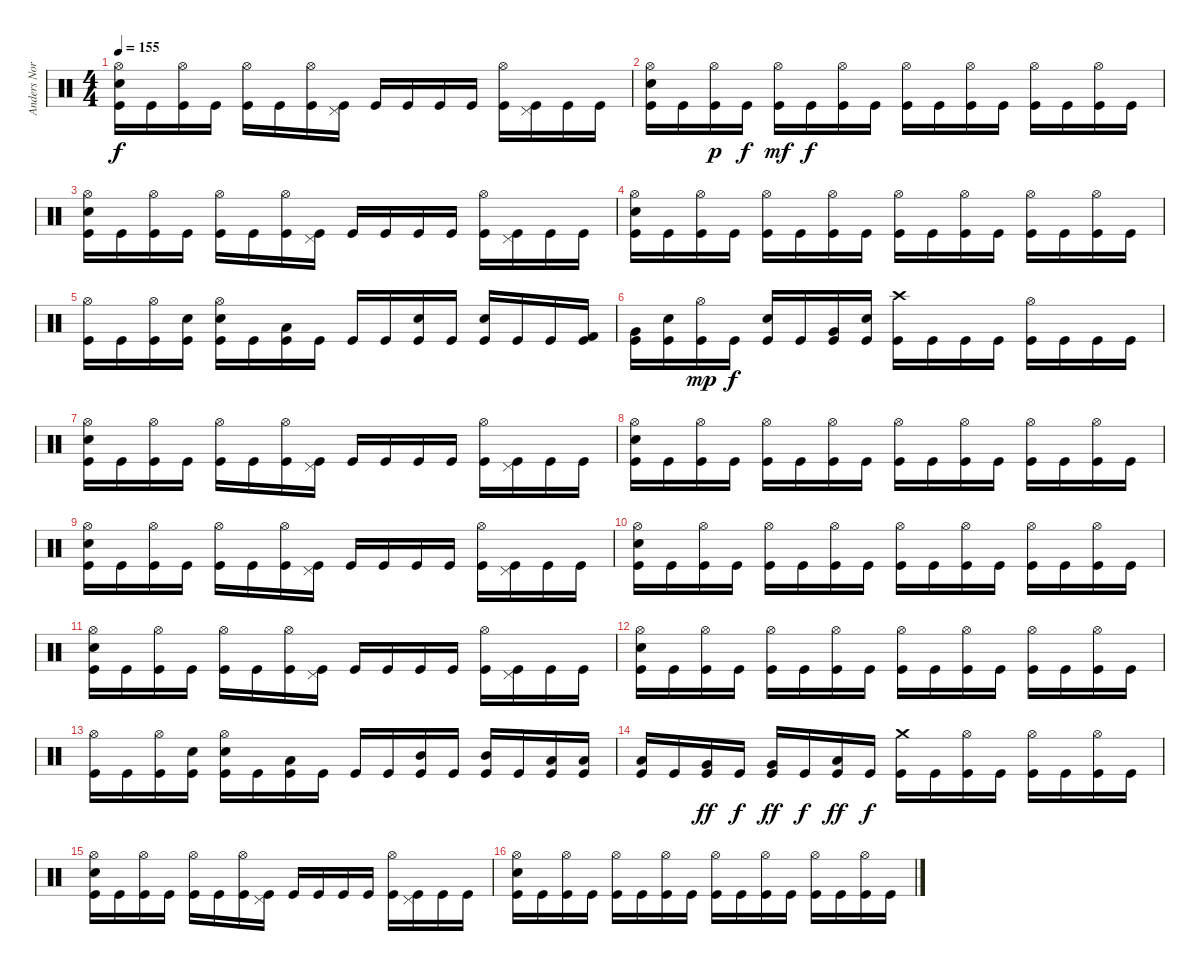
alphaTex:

\track ("Anders Nordin" "Anders Nor") {instrument percussion}
\staff {score}
\articulation defaults
\ts (4 4)
\tempo 155
\clef neutral
\ks c
("Hi-Hat (open)" "Snare (hit) 2" "Kick (hit)").16{dy f} "Kick (hit)".16 ("Hi-Hat (open)" "Kick (hit)").16 "Kick (hit)".16 ("Hi-Hat (open)" "Kick (hit)").16 "Kick (hit)".16 ("Hi-Hat (open)" "Kick (hit)").16 ("Pedal Hi-Hat (hit)" "Kick (hit)").16 "Kick (hit)".16 "Kick (hit)".16 "Kick (hit)".16 "Kick (hit)".16 ("Hi-Hat (open)" "Kick (hit)").16 ("Pedal Hi-Hat (hit)" "Kick (hit)").16 "Kick (hit)".16 "Kick (hit)".16 |
("Snare (hit) 2" "Hi-Hat (open)" "Kick (hit)").16 "Kick (hit)".16 ("Hi-Hat (open)" "Kick (hit)").16{dy p} "Kick (hit)".16{dy f} ("Hi-Hat (open)" "Kick (hit)").16{dy mf} "Kick (hit)".16{dy f} ("Hi-Hat (open)" "Kick (hit)").16 "Kick (hit)".16 ("Hi-Hat (open)" "Kick (hit)").16 "Kick (hit)".16 ("Hi-Hat (open)" "Kick (hit)").16 "Kick (hit)".16 ("Hi-Hat (open)" "Kick (hit)").16 "Kick (hit)".16 ("Hi-Hat (open)" "Kick (hit)").16 "Kick (hit)".16 |
("Hi-Hat (open)" "Snare (hit) 2" "Kick (hit)").16 "Kick (hit)".16 ("Hi-Hat (open)" "Kick (hit)").16 "Kick (hit)".16 ("Hi-Hat (open)" "Kick (hit)").16 "Kick (hit)".16 ("Hi-Hat (open)" "Kick (hit)").16 ("Pedal Hi-Hat (hit)" "Kick (hit)").16 "Kick (hit)".16 "Kick (hit)".16 "Kick (hit)".16 "Kick (hit)".16 ("Hi-Hat (open)" "Kick (hit)").16 ("Pedal Hi-Hat (hit)" "Kick (hit)").16 "Kick (hit)".16 "Kick (hit)".16 |
("Snare (hit) 2" "Hi-Hat (open)" "Kick (hit)").16 "Kick (hit)".16 ("Hi-Hat (open)" "Kick (hit)").16 "Kick (hit)".16 ("Hi-Hat (open)" "Kick (hit)").16 "Kick (hit)".16 ("Hi-Hat (open)" "Kick (hit)").16 "Kick (hit)".16 ("Hi-Hat (open)" "Kick (hit)").16 "Kick (hit)".16 ("Hi-Hat (open)" "Kick (hit)").16 "Kick (hit)".16 ("Hi-Hat (open)" "Kick (hit)").16 "Kick (hit)".16 ("Hi-Hat (open)" "Kick (hit)").16 "Kick (hit)".16 |
("Hi-Hat (open)" "Kick (hit)").16 "Kick (hit)".16 ("Hi-Hat (open)" "Kick (hit)").16 ("Snare (hit) 2" "Kick (hit)").16 ("Snare (hit) 2" "Hi-Hat (open)" "Kick (hit)").16 "Kick (hit)".16 ("Low Tom (hit)" "Kick (hit)").16 "Kick (hit)".16 "Kick (hit)".16 "Kick (hit)".16 ("Snare (hit) 2" "Kick (hit)").16 "Kick (hit)".16 ("Snare (hit) 2" "Kick (hit)").16 "Kick (hit)".16 "Kick (hit)".16 ("Kick (hit) 2" "Kick (hit)").16 |
("Very Low Tom (hit)" "Kick (hit)").16 ("Snare (hit) 2" "Kick (hit)").16 ("Hi-Hat (open)" "Kick (hit)").16{dy mp} "Kick (hit)".16{dy f} ("Snare (hit) 2" "Kick (hit)").16 "Kick (hit)".16 ("Very Low Tom (hit)" "Kick (hit)").16 ("Snare (hit) 2" "Kick (hit)").16 ("Crash high (hit)" "Kick (hit)").16 "Kick (hit)".16 "Kick (hit)".16 "Kick (hit)".16 ("Hi-Hat (open)" "Kick (hit)").16 "Kick (hit)".16 "Kick (hit)".16 "Kick (hit)".16 |
("Hi-Hat (open)" "Snare (hit) 2" "Kick (hit)").16 "Kick (hit)".16 ("Hi-Hat (open)" "Kick (hit)").16 "Kick (hit)".16 ("Hi-Hat (open)" "Kick (hit)").16 "Kick (hit)".16 ("Hi-Hat (open)" "Kick (hit)").16 ("Pedal Hi-Hat (hit)" "Kick (hit)").16 "Kick (hit)".16 "Kick (hit)".16 "Kick (hit)".16 "Kick (hit)".16 ("Hi-Hat (open)" "Kick (hit)").16 ("Pedal Hi-Hat (hit)" "Kick (hit)").16 "Kick (hit)".16 "Kick (hit)".16 |
("Snare (hit) 2" "Hi-Hat (open)" "Kick (hit)").16 "Kick (hit)".16 ("Hi-Hat (open)" "Kick (hit)").16 "Kick (hit)".16 ("Hi-Hat (open)" "Kick (hit)").16 "Kick (hit)".16 ("Hi-Hat (open)" "Kick (hit)").16 "Kick (hit)".16 ("Hi-Hat (open)" "Kick (hit)").16 "Kick (hit)".16 ("Hi-Hat (open)" "Kick (hit)").16 "Kick (hit)".16 ("Hi-Hat (open)" "Kick (hit)").16 "Kick (hit)".16 ("Hi-Hat (open)" "Kick (hit)").16 "Kick (hit)".16 |
("Hi-Hat (open)" "Snare (hit) 2" "Kick (hit)").16 "Kick (hit)".16 ("Hi-Hat (open)" "Kick (hit)").16 "Kick (hit)".16 ("Hi-Hat (open)" "Kick (hit)").16 "Kick (hit)".16 ("Hi-Hat (open)" "Kick (hit)").16 ("Pedal Hi-Hat (hit)" "Kick (hit)").16 "Kick (hit)".16 "Kick (hit)".16 "Kick (hit)".16 "Kick (hit)".16 ("Hi-Hat (open)" "Kick (hit)").16 ("Pedal Hi-Hat (hit)" "Kick (hit)").16 "Kick (hit)".16 "Kick (hit)".16 |
("Snare (hit) 2" "Hi-Hat (open)" "Kick (hit)").16 "Kick (hit)".16 ("Hi-Hat (open)" "Kick (hit)").16 "Kick (hit)".16 ("Hi-Hat (open)" "Kick (hit)").16 "Kick (hit)".16 ("Hi-Hat (open)" "Kick (hit)").16 "Kick (hit)".16 ("Hi-Hat (open)" "Kick (hit)").16 "Kick (hit)".16 ("Hi-Hat (open)" "Kick (hit)").16 "Kick (hit)".16 ("Hi-Hat (open)" "Kick (hit)").16 "Kick (hit)".16 ("Hi-Hat (open)" "Kick (hit)").16 "Kick (hit)".16 |
("Hi-Hat (open)" "Snare (hit) 2" "Kick (hit)").16 "Kick (hit)".16 ("Hi-Hat (open)" "Kick (hit)").16 "Kick (hit)".16 ("Hi-Hat (open)" "Kick (hit)").16 "Kick (hit)".16 ("Hi-Hat (open)" "Kick (hit)").16 ("Pedal Hi-Hat (hit)" "Kick (hit)").16 "Kick (hit)".16 "Kick (hit)".16 "Kick (hit)".16 "Kick (hit)".16 ("Hi-Hat (open)" "Kick (hit)").16 ("Pedal Hi-Hat (hit)" "Kick (hit)").16 "Kick (hit)".16 "Kick (hit)".16 |
("Snare (hit) 2" "Hi-Hat (open)" "Kick (hit)").16 "Kick (hit)".16 ("Hi-Hat (open)" "Kick (hit)").16 "Kick (hit)".16 ("Hi-Hat (open)" "Kick (hit)").16 "Kick (hit)".16 ("Hi-Hat (open)" "Kick (hit)").16 "Kick (hit)".16 ("Hi-Hat (open)" "Kick (hit)").16 "Kick (hit)".16 ("Hi-Hat (open)" "Kick (hit)").16 "Kick (hit)".16 ("Hi-Hat (open)" "Kick (hit)").16 "Kick (hit)".16 ("Hi-Hat (open)" "Kick (hit)").16 "Kick (hit)".16 |
("Hi-Hat (open)" "Kick (hit)").16 "Kick (hit)".16 ("Hi-Hat (open)" "Kick (hit)").16 ("Snare (hit) 2" "Kick (hit)").16 ("Snare (hit) 2" "Hi-Hat (open)" "Kick (hit)").16 "Kick (hit)".16 ("Low Tom (hit)" "Kick (hit)").16 "Kick (hit)".16 "Kick (hit)".16 "Kick (hit)".16 ("Mid Tom (hit)" "Kick (hit)").16 "Kick (hit)".16 ("Mid Tom (hit)" "Kick (hit)").16 "Kick (hit)".16 ("Low Tom (hit)" "Kick (hit)").16 ("Low Tom (hit)" "Kick (hit)").16 |
("Low Tom (hit)" "Kick (hit)").16 "Kick (hit)".16 ("Very Low Tom (hit)" "Kick (hit)").16{dy ff} "Kick (hit)".16{dy f} ("Very Low Tom (hit)" "Kick (hit)").16{dy ff} "Kick (hit)".16{dy f} ("Low Floor Tom (hit)" "Kick (hit)").16{dy ff} "Kick (hit)".16{dy f} ("Crash medium (hit)" "Kick (hit)").16 "Kick (hit)".16 ("Hi-Hat (open)" "Kick (hit)").16 "Kick (hit)".16 ("Hi-Hat (open)" "Kick (hit)").16 "Kick (hit)".16 ("Hi-Hat (open)" "Kick (hit)").16 "Kick (hit)".16 |
("Hi-Hat (open)" "Snare (hit) 2" "Kick (hit)").16 "Kick (hit)".16 ("Hi-Hat (open)" "Kick (hit)").16 "Kick (hit)".16 ("Hi-Hat (open)" "Kick (hit)").16 "Kick (hit)".16 ("Hi-Hat (open)" "Kick (hit)").16 ("Pedal Hi-Hat (hit)" "Kick (hit)").16 "Kick (hit)".16 "Kick (hit)".16 "Kick (hit)".16 "Kick (hit)".16 ("Hi-Hat (open)" "Kick (hit)").16 ("Pedal Hi-Hat (hit)" "Kick (hit)").16 "Kick (hit)".16 "Kick (hit)".16 |
("Snare (hit) 2" "Hi-Hat (open)" "Kick (hit)").16 "Kick (hit)".16 ("Hi-Hat (open)" "Kick (hit)").16 "Kick (hit)".16 ("Hi-Hat (open)" "Kick (hit)").16 "Kick (hit)".16 ("Hi-Hat (open)" "Kick (hit)").16 "Kick (hit)".16 ("Hi-Hat (open)" "Kick (hit)").16 "Kick (hit)".16 ("Hi-Hat (open)" "Kick (hit)").16 "Kick (hit)".16 ("Hi-Hat (open)" "Kick (hit)").16 "Kick (hit)".16 ("Hi-Hat (open)" "Kick (hit)").16 "Kick (hit)".16
